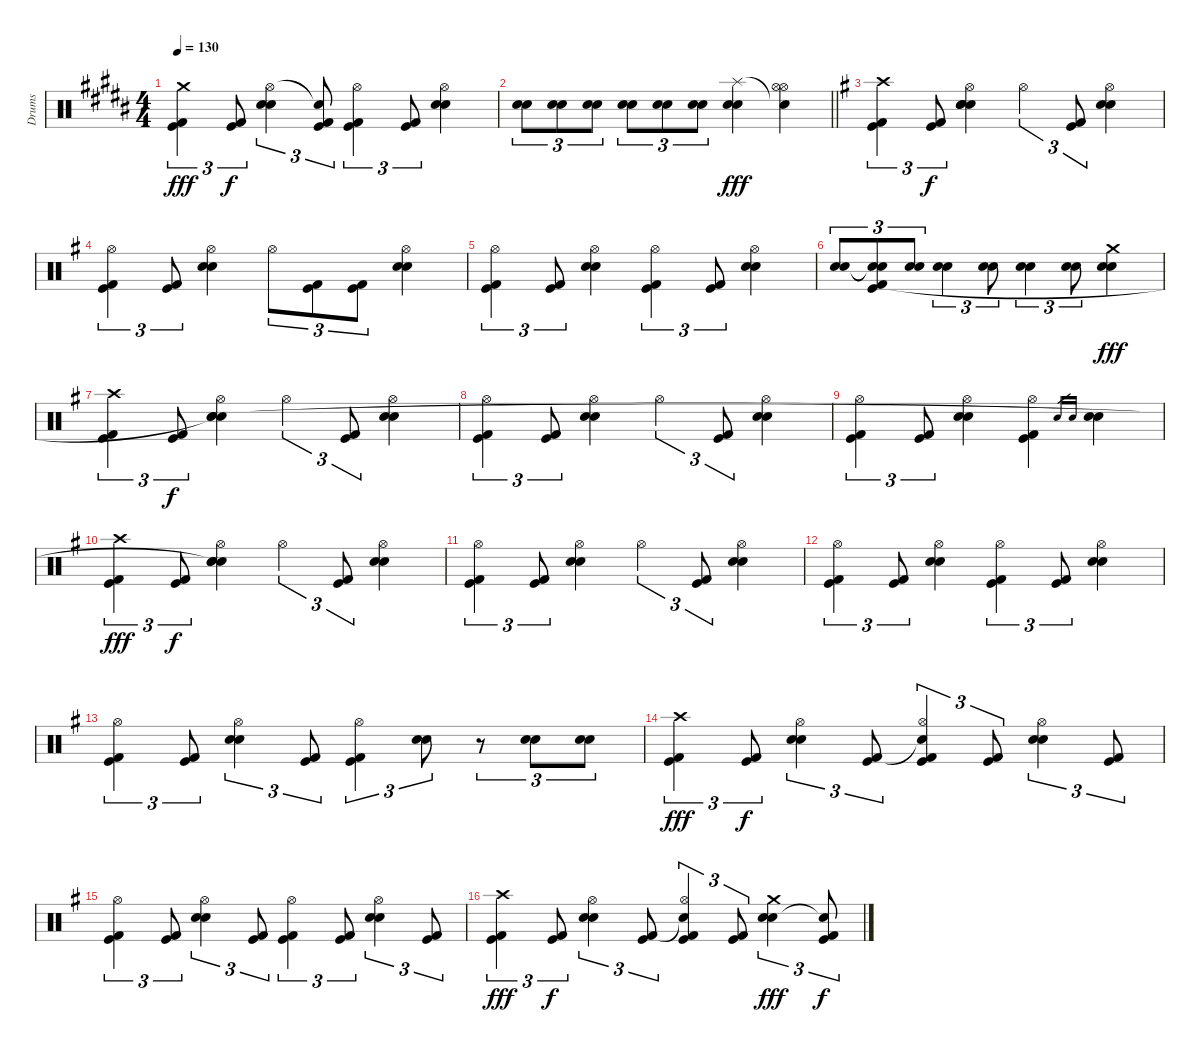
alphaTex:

\track ("Drums" "Drums") {instrument percussion}
\staff {score}
\articulation defaults
\ts (4 4)
\tempo 130
\clef neutral
\ks b
("Crash medium (hit)" "Kick (hit)" "Kick (hit) 2").4{tu (3 2) dy fff} ("Kick (hit)" "Kick (hit) 2").8{tu (3 2) dy f} ("Hi-Hat (open)" "Electric Snare (hit)" "Snare (hit) 2").4{tu (3 2)} ("Snare (hit)"{t} "Kick (hit)" "Kick (hit) 2").8{tu (3 2)} ("Hi-Hat (open)" "Kick (hit)" "Kick (hit) 2").4{tu (3 2)} ("Kick (hit)" "Kick (hit) 2").8{tu (3 2)} ("Hi-Hat (open)" "Electric Snare (hit)" "Snare (hit) 2").4 |
\barLineRight lightlight
("Electric Snare (hit)" "Snare (hit) 2").8{tu (3 2)} ("Electric Snare (hit)" "Snare (hit) 2").8{tu (3 2)} ("Electric Snare (hit)" "Snare (hit) 2").8{tu (3 2)} ("Electric Snare (hit)" "Snare (hit) 2").8{tu (3 2)} ("Electric Snare (hit)" "Snare (hit) 2").8{tu (3 2)} ("Electric Snare (hit)" "Snare (hit) 2").8{tu (3 2)} ("Electric Snare (hit)" "Snare (hit) 2" "Splash (hit)").4{dy fff} ("Hi-Hat (open)" "Hi-Hat (open)" "Snare (hit)"{t}).4 |
\ks g
("Crash high (hit)" "Kick (hit)" "Kick (hit) 2").4{tu (3 2)} ("Kick (hit)" "Kick (hit) 2").8{tu (3 2) dy f} ("Hi-Hat (open)" "Electric Snare (hit)" "Snare (hit) 2" "Snare (hit)"{t}).4 "Hi-Hat (open)".4{tu (3 2)} ("Kick (hit)" "Kick (hit) 2").8{tu (3 2)} ("Hi-Hat (open)" "Electric Snare (hit)" "Snare (hit) 2").4 |
("Hi-Hat (open)" "Kick (hit)" "Kick (hit) 2").4{tu (3 2)} ("Kick (hit)" "Kick (hit) 2").8{tu (3 2)} ("Hi-Hat (open)" "Electric Snare (hit)" "Snare (hit) 2").4 "Hi-Hat (open)".8{tu (3 2)} ("Kick (hit)" "Kick (hit) 2").8{tu (3 2)} ("Kick (hit)" "Kick (hit) 2").8{tu (3 2)} ("Hi-Hat (open)" "Electric Snare (hit)" "Snare (hit) 2").4 |
("Hi-Hat (open)" "Kick (hit)" "Kick (hit) 2").4{tu (3 2)} ("Kick (hit)" "Kick (hit) 2").8{tu (3 2)} ("Hi-Hat (open)" "Electric Snare (hit)" "Snare (hit) 2").4 ("Hi-Hat (open)" "Kick (hit)" "Kick (hit) 2").4{tu (3 2)} ("Kick (hit)" "Kick (hit) 2").8{tu (3 2)} ("Hi-Hat (open)" "Electric Snare (hit)" "Snare (hit) 2").4 |
("Electric Snare (hit)" "Snare (hit) 2").8{tu (3 2)} ("Snare (hit)"{t} "Snare (hit)"{t} "Kick (hit)" "Kick (hit) 2").8{tu (3 2)} ("Electric Snare (hit)" "Snare (hit) 2").8{tu (3 2)} ("Electric Snare (hit)" "Snare (hit) 2").4{tu (3 2)} ("Electric Snare (hit)" "Snare (hit) 2").8{tu (3 2)} ("Electric Snare (hit)" "Snare (hit) 2").4{tu (3 2)} ("Electric Snare (hit)" "Snare (hit) 2").8{tu (3 2)} ("Electric Snare (hit)" "Snare (hit) 2" "Crash medium (hit)").4{dy fff} |
("Crash high (hit)" "Kick (hit)" "Kick (hit) 2").4{tu (3 2)} ("Kick (hit)" "Kick (hit) 2").8{tu (3 2) dy f} ("Hi-Hat (open)" "Electric Snare (hit)" "Snare (hit) 2" "Snare (hit)"{t}).4 "Hi-Hat (open)".4{tu (3 2)} ("Kick (hit)" "Kick (hit) 2").8{tu (3 2)} ("Hi-Hat (open)" "Electric Snare (hit)" "Snare (hit) 2").4 |
("Hi-Hat (open)" "Kick (hit)" "Kick (hit) 2").4{tu (3 2)} ("Kick (hit)" "Kick (hit) 2").8{tu (3 2)} ("Hi-Hat (open)" "Electric Snare (hit)" "Snare (hit) 2").4 "Hi-Hat (open)".4{tu (3 2)} ("Kick (hit)" "Kick (hit) 2").8{tu (3 2)} ("Hi-Hat (open)" "Electric Snare (hit)" "Snare (hit) 2").4 |
("Hi-Hat (open)" "Kick (hit)" "Kick (hit) 2").4{tu (3 2)} ("Kick (hit)" "Kick (hit) 2").8{tu (3 2)} ("Hi-Hat (open)" "Electric Snare (hit)" "Snare (hit) 2").4 ("Hi-Hat (open)" "Kick (hit)" "Kick (hit) 2").4 "Electric Snare (hit)".16{gr} "Snare (hit) 2".16{gr} ("Electric Snare (hit)" "Snare (hit) 2").4 |
("Crash high (hit)" "Kick (hit)" "Kick (hit) 2").4{tu (3 2) dy fff} ("Kick (hit)" "Kick (hit) 2").8{tu (3 2) dy f} ("Hi-Hat (open)" "Electric Snare (hit)" "Snare (hit) 2" "Snare (hit)"{t}).4 "Hi-Hat (open)".4{tu (3 2)} ("Kick (hit)" "Kick (hit) 2").8{tu (3 2)} ("Hi-Hat (open)" "Electric Snare (hit)" "Snare (hit) 2").4 |
("Hi-Hat (open)" "Kick (hit)" "Kick (hit) 2").4{tu (3 2)} ("Kick (hit)" "Kick (hit) 2").8{tu (3 2)} ("Hi-Hat (open)" "Electric Snare (hit)" "Snare (hit) 2").4 "Hi-Hat (open)".4{tu (3 2)} ("Kick (hit)" "Kick (hit) 2").8{tu (3 2)} ("Hi-Hat (open)" "Electric Snare (hit)" "Snare (hit) 2").4 |
("Hi-Hat (open)" "Kick (hit)" "Kick (hit) 2").4{tu (3 2)} ("Kick (hit)" "Kick (hit) 2").8{tu (3 2)} ("Hi-Hat (open)" "Electric Snare (hit)" "Snare (hit) 2").4 ("Hi-Hat (open)" "Kick (hit)" "Kick (hit) 2").4{tu (3 2)} ("Kick (hit)" "Kick (hit) 2").8{tu (3 2)} ("Hi-Hat (open)" "Electric Snare (hit)" "Snare (hit) 2").4 |
("Hi-Hat (open)" "Kick (hit)" "Kick (hit) 2").4{tu (3 2)} ("Kick (hit)" "Kick (hit) 2").8{tu (3 2)} ("Hi-Hat (open)" "Electric Snare (hit)" "Snare (hit) 2").4{tu (3 2)} ("Kick (hit)" "Kick (hit) 2").8{tu (3 2)} ("Hi-Hat (open)" "Kick (hit)" "Kick (hit) 2").4{tu (3 2)} ("Electric Snare (hit)" "Snare (hit) 2").8{tu (3 2)} r.8{tu (3 2)} ("Electric Snare (hit)" "Snare (hit) 2").8{tu (3 2)} ("Electric Snare (hit)" "Snare (hit) 2").8{tu (3 2)} |
("Crash high (hit)" "Kick (hit)" "Kick (hit) 2").4{tu (3 2) dy fff} ("Kick (hit)" "Kick (hit) 2").8{tu (3 2) dy f} ("Hi-Hat (open)" "Electric Snare (hit)" "Snare (hit) 2").4{tu (3 2)} ("Kick (hit)" "Kick (hit) 2").8{tu (3 2)} ("Hi-Hat (open)" "Snare (hit)"{t} "Kick (hit)" "Kick (hit) 2").4{tu (3 2)} ("Kick (hit)" "Kick (hit) 2").8{tu (3 2)} ("Hi-Hat (open)" "Electric Snare (hit)" "Snare (hit) 2").4{tu (3 2)} ("Kick (hit)" "Kick (hit) 2").8{tu (3 2)} |
("Hi-Hat (open)" "Kick (hit)" "Kick (hit) 2").4{tu (3 2)} ("Kick (hit)" "Kick (hit) 2").8{tu (3 2)} ("Hi-Hat (open)" "Electric Snare (hit)" "Snare (hit) 2").4{tu (3 2)} ("Kick (hit)" "Kick (hit) 2").8{tu (3 2)} ("Hi-Hat (open)" "Kick (hit)" "Kick (hit) 2").4{tu (3 2)} ("Kick (hit)" "Kick (hit) 2").8{tu (3 2)} ("Hi-Hat (open)" "Electric Snare (hit)" "Snare (hit) 2").4{tu (3 2)} ("Kick (hit)" "Kick (hit) 2").8{tu (3 2)} |
("Crash high (hit)" "Kick (hit)" "Kick (hit) 2").4{tu (3 2) dy fff} ("Kick (hit)" "Kick (hit) 2").8{tu (3 2) dy f} ("Hi-Hat (open)" "Electric Snare (hit)" "Snare (hit) 2").4{tu (3 2)} ("Kick (hit)" "Kick (hit) 2").8{tu (3 2)} ("Hi-Hat (open)" "Snare (hit)"{t} "Kick (hit)" "Kick (hit) 2").4{tu (3 2)} ("Kick (hit)" "Kick (hit) 2").8{tu (3 2)} ("Electric Snare (hit)" "Snare (hit) 2" "Crash medium (hit)").4{tu (3 2) dy fff} ("Snare (hit)"{t} "Kick (hit)" "Kick (hit) 2").8{tu (3 2) dy f}
